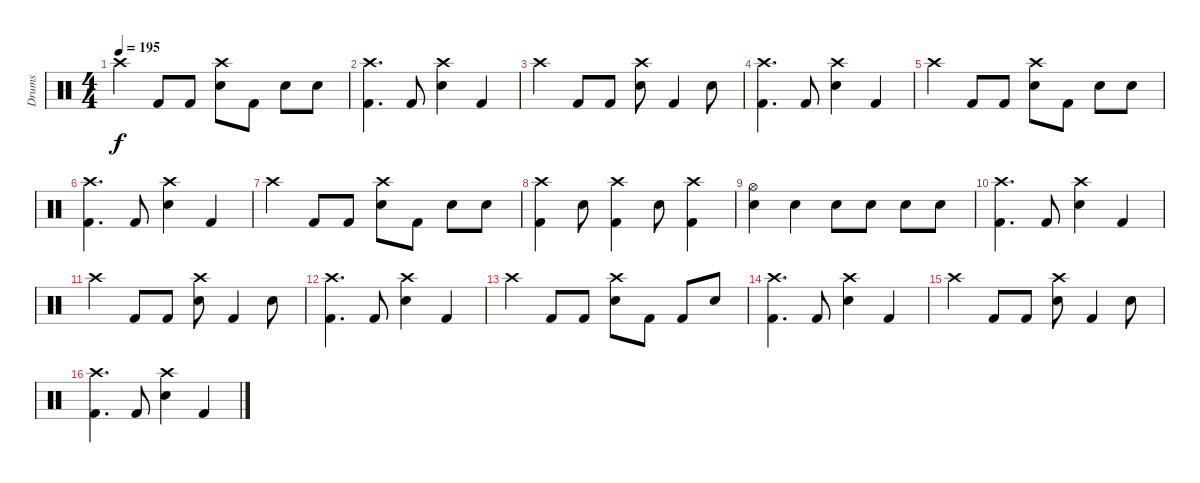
\track ("Drums" "Drums") {instrument percussion}
\staff {score}
\articulation defaults
\ts (4 4)
\tempo 195
\clef neutral
\ks c "Crash high (hit)".4{dy f} "Kick (hit) 2".8 "Kick (hit) 2".8
("Crash high (hit)" "Electric Snare (hit)").8 "Kick (hit) 2".8 "Electric Snare (hit)".8 "Electric Snare (hit)".8 |
("Crash high (hit)" "Kick (hit) 2").4{d} "Kick (hit) 2".8 ("Crash high (hit)" "Electric Snare (hit)").4 "Kick (hit) 2".4 |
"Crash high (hit)".4 "Kick (hit) 2".8 "Kick (hit) 2".8 ("Crash high (hit)" "Electric Snare (hit)").8 "Kick (hit) 2".4 "Electric Snare (hit)".8 |
("Crash high (hit)" "Kick (hit) 2").4{d} "Kick (hit) 2".8 ("Crash high (hit)" "Electric Snare (hit)").4 "Kick (hit) 2".4 |
"Crash high (hit)".4 "Kick (hit) 2".8 "Kick (hit) 2".8 ("Crash high (hit)" "Electric Snare (hit)").8 "Kick (hit) 2".8 "Electric Snare (hit)".8 "Electric Snare (hit)".8 |
("Crash high (hit)" "Kick (hit) 2").4{d} "Kick (hit) 2".8 ("Crash high (hit)" "Electric Snare (hit)").4 "Kick (hit) 2".4 |
"Crash high (hit)".4 "Kick (hit) 2".8 "Kick (hit) 2".8 ("Crash high (hit)" "Electric Snare (hit)").8 "Kick (hit) 2".8 "Electric Snare (hit)".8 "Electric Snare (hit)".8 |
("Crash high (hit)" "Kick (hit) 2").4 "Electric Snare (hit)".8 ("Crash high (hit)" "Kick (hit) 2").4 "Electric Snare (hit)".8 ("Crash high (hit)" "Kick (hit) 2").4 |
("Hi-Hat (open)" "Electric Snare (hit)").4 "Electric Snare (hit)".4 "Electric Snare (hit)".8 "Electric Snare (hit)".8 "Electric Snare (hit)".8 "Electric Snare (hit)".8 |
("Crash high (hit)" "Kick (hit) 2").4{d} "Kick (hit) 2".8 ("Crash high (hit)" "Electric Snare (hit)").4 "Kick (hit) 2".4 |
"Crash high (hit)".4 "Kick (hit) 2".8 "Kick (hit) 2".8 ("Crash high (hit)" "Electric Snare (hit)").8 "Kick (hit) 2".4 "Electric Snare (hit)".8 |
("Crash high (hit)" "Kick (hit) 2").4{d} "Kick (hit) 2".8 ("Crash high (hit)" "Electric Snare (hit)").4 "Kick (hit) 2".4 |
"Crash high (hit)".4 "Kick (hit) 2".8 "Kick (hit) 2".8 ("Crash high (hit)" "Electric Snare (hit)").8 "Kick (hit) 2".8 "Kick (hit) 2".8 "Electric Snare (hit)".8 |
("Crash high (hit)" "Kick (hit) 2").4{d} "Kick (hit) 2".8 ("Crash high (hit)" "Electric Snare (hit)").4 "Kick (hit) 2".4 |
"Crash high (hit)".4 "Kick (hit) 2".8 "Kick (hit) 2".8 ("Crash high (hit)" "Electric Snare (hit)").8 "Kick (hit) 2".4 "Electric Snare (hit)".8 |
("Crash high (hit)" "Kick (hit) 2").4{d} "Kick (hit) 2".8 ("Crash high (hit)" "Electric Snare (hit)").4 "Kick (hit) 2".4
